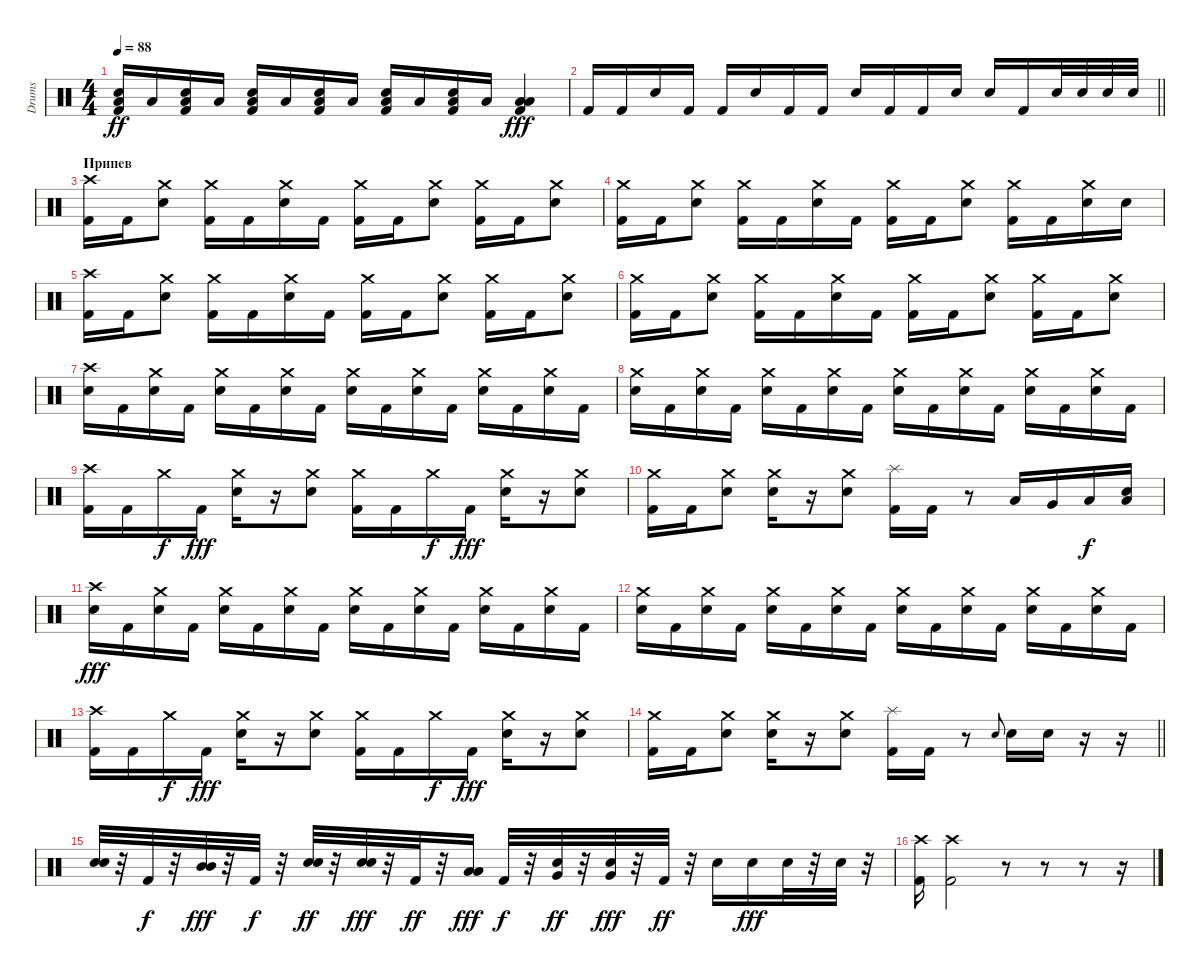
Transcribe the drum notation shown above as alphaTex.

\track ("Drums" "Drums") {instrument percussion}
\staff {score}
\articulation defaults
\ts (4 4)
\tempo 88
\clef neutral
\ks c
("Kick (hit) 2" "Electric Snare (hit)" "Low Floor Tom (hit)").16{dy ff} "Low Floor Tom (hit)".16 ("Kick (hit) 2" "Electric Snare (hit)" "Low Floor Tom (hit)").16 "Low Floor Tom (hit)".16 ("Kick (hit) 2" "Electric Snare (hit)" "Low Floor Tom (hit)").16 "Low Floor Tom (hit)".16 ("Kick (hit) 2" "Electric Snare (hit)" "Low Floor Tom (hit)").16 "Low Floor Tom (hit)".16 ("Kick (hit) 2" "Electric Snare (hit)" "Low Floor Tom (hit)").16 "Low Floor Tom (hit)".16 ("Kick (hit) 2" "Electric Snare (hit)" "Low Floor Tom (hit)").16 "Low Floor Tom (hit)".16 ("Kick (hit) 2" "Low Floor Tom (hit)" "Low Tom (hit)").4{dy fff} |
\barLineRight lightlight "Kick (hit) 2".16 "Kick (hit) 2".16 "Electric Snare (hit)".16 "Kick (hit) 2".16 "Kick (hit) 2".16 "Electric Snare (hit)".16 "Kick (hit) 2".16 "Kick (hit) 2".16 "Electric Snare (hit)".16 "Kick (hit) 2".16 "Kick (hit) 2".16 "Electric Snare (hit)".16 "Electric Snare (hit)".16 "Kick (hit) 2".16 "Electric Snare (hit)".32 "Electric Snare (hit)".32 "Electric Snare (hit)".32 "Electric Snare (hit)".32
|
\section ("" "Припев")
("Kick (hit) 2" "Crash high (hit)").16 "Kick (hit) 2".16 ("Electric Snare (hit)" "Crash medium (hit)").8 ("Kick (hit) 2" "Crash medium (hit)").16 "Kick (hit) 2".16 ("Electric Snare (hit)" "Crash medium (hit)").16 "Kick (hit) 2".16 ("Kick (hit) 2" "Crash medium (hit)").16 "Kick (hit) 2".16 ("Electric Snare (hit)" "Crash medium (hit)").8 ("Kick (hit) 2" "Crash medium (hit)").16 "Kick (hit) 2".16 ("Electric Snare (hit)" "Crash medium (hit)").8 |
("Kick (hit) 2" "Crash medium (hit)").16 "Kick (hit) 2".16 ("Electric Snare (hit)" "Crash medium (hit)").8 ("Kick (hit) 2" "Crash medium (hit)").16 "Kick (hit) 2".16 ("Electric Snare (hit)" "Crash medium (hit)").16 "Kick (hit) 2".16 ("Kick (hit) 2" "Crash medium (hit)").16 "Kick (hit) 2".16 ("Electric Snare (hit)" "Crash medium (hit)").8 ("Kick (hit) 2" "Crash medium (hit)").16 "Kick (hit) 2".16 ("Electric Snare (hit)" "Crash medium (hit)").16 "Electric Snare (hit)".16 |
("Kick (hit) 2" "Crash high (hit)").16 "Kick (hit) 2".16 ("Electric Snare (hit)" "Crash medium (hit)").8 ("Kick (hit) 2" "Crash medium (hit)").16 "Kick (hit) 2".16 ("Electric Snare (hit)" "Crash medium (hit)").16 "Kick (hit) 2".16 ("Kick (hit) 2" "Crash medium (hit)").16 "Kick (hit) 2".16 ("Electric Snare (hit)" "Crash medium (hit)").8 ("Kick (hit) 2" "Crash medium (hit)").16 "Kick (hit) 2".16 ("Electric Snare (hit)" "Crash medium (hit)").8 |
("Kick (hit) 2" "Crash medium (hit)").16 "Kick (hit) 2".16 ("Electric Snare (hit)" "Crash medium (hit)").8 ("Kick (hit) 2" "Crash medium (hit)").16 "Kick (hit) 2".16 ("Electric Snare (hit)" "Crash medium (hit)").16 "Kick (hit) 2".16 ("Kick (hit) 2" "Crash medium (hit)").16 "Kick (hit) 2".16 ("Electric Snare (hit)" "Crash medium (hit)").8 ("Kick (hit) 2" "Crash medium (hit)").16 "Kick (hit) 2".16 ("Electric Snare (hit)" "Crash medium (hit)").8 |
("Electric Snare (hit)" "Crash high (hit)").16 "Kick (hit) 2".16 ("Electric Snare (hit)" "Crash medium (hit)").16 "Kick (hit) 2".16 ("Electric Snare (hit)" "Crash medium (hit)").16 "Kick (hit) 2".16 ("Electric Snare (hit)" "Crash medium (hit)").16 "Kick (hit) 2".16 ("Electric Snare (hit)" "Crash medium (hit)").16 "Kick (hit) 2".16 ("Electric Snare (hit)" "Crash medium (hit)").16 "Kick (hit) 2".16 ("Electric Snare (hit)" "Crash medium (hit)").16 "Kick (hit) 2".16 ("Electric Snare (hit)" "Crash medium (hit)").16 "Kick (hit) 2".16 |
("Electric Snare (hit)" "Crash medium (hit)").16 "Kick (hit) 2".16 ("Electric Snare (hit)" "Crash medium (hit)").16 "Kick (hit) 2".16 ("Electric Snare (hit)" "Crash medium (hit)").16 "Kick (hit) 2".16 ("Electric Snare (hit)" "Crash medium (hit)").16 "Kick (hit) 2".16 ("Electric Snare (hit)" "Crash medium (hit)").16 "Kick (hit) 2".16 ("Electric Snare (hit)" "Crash medium (hit)").16 "Kick (hit) 2".16 ("Electric Snare (hit)" "Crash medium (hit)").16 "Kick (hit) 2".16 ("Electric Snare (hit)" "Crash medium (hit)").16 "Kick (hit) 2".16 |
("Kick (hit) 2" "Crash high (hit)").16 "Kick (hit) 2".16 "Crash medium (hit)".16{dy f} "Kick (hit) 2".16{dy fff} ("Electric Snare (hit)" "Crash medium (hit)").16 r.16 ("Electric Snare (hit)" "Crash medium (hit)").8 ("Kick (hit) 2" "Crash medium (hit)").16 "Kick (hit) 2".16 "Crash medium (hit)".16{dy f} "Kick (hit) 2".16{dy fff} ("Electric Snare (hit)" "Crash medium (hit)").16 r.16 ("Electric Snare (hit)" "Crash medium (hit)").8 |
("Kick (hit) 2" "Crash medium (hit)").16 "Kick (hit) 2".16 ("Electric Snare (hit)" "Crash medium (hit)").8 ("Electric Snare (hit)" "Crash medium (hit)").16 r.16 ("Electric Snare (hit)" "Crash medium (hit)").8 ("Kick (hit) 2" "Splash (hit)").16 "Kick (hit) 2".16 r.8 "Low Tom (hit)".16 "Very Low Tom (hit)".16 "Low Floor Tom (hit)".16{dy f} ("Low Floor Tom (hit)" "Electric Snare (hit)").16 |
("Electric Snare (hit)" "Crash high (hit)").16{dy fff} "Kick (hit) 2".16 ("Electric Snare (hit)" "Crash medium (hit)").16 "Kick (hit) 2".16 ("Electric Snare (hit)" "Crash medium (hit)").16 "Kick (hit) 2".16 ("Electric Snare (hit)" "Crash medium (hit)").16 "Kick (hit) 2".16 ("Electric Snare (hit)" "Crash medium (hit)").16 "Kick (hit) 2".16 ("Electric Snare (hit)" "Crash medium (hit)").16 "Kick (hit) 2".16 ("Electric Snare (hit)" "Crash medium (hit)").16 "Kick (hit) 2".16 ("Electric Snare (hit)" "Crash medium (hit)").16 "Kick (hit) 2".16 |
("Electric Snare (hit)" "Crash medium (hit)").16 "Kick (hit) 2".16 ("Electric Snare (hit)" "Crash medium (hit)").16 "Kick (hit) 2".16 ("Electric Snare (hit)" "Crash medium (hit)").16 "Kick (hit) 2".16 ("Electric Snare (hit)" "Crash medium (hit)").16 "Kick (hit) 2".16 ("Electric Snare (hit)" "Crash medium (hit)").16 "Kick (hit) 2".16 ("Electric Snare (hit)" "Crash medium (hit)").16 "Kick (hit) 2".16 ("Electric Snare (hit)" "Crash medium (hit)").16 "Kick (hit) 2".16 ("Electric Snare (hit)" "Crash medium (hit)").16 "Kick (hit) 2".16 |
("Kick (hit) 2" "Crash high (hit)").16 "Kick (hit) 2".16 "Crash medium (hit)".16{dy f} "Kick (hit) 2".16{dy fff} ("Electric Snare (hit)" "Crash medium (hit)").16 r.16 ("Electric Snare (hit)" "Crash medium (hit)").8 ("Kick (hit) 2" "Crash medium (hit)").16 "Kick (hit) 2".16 "Crash medium (hit)".16{dy f} "Kick (hit) 2".16{dy fff} ("Electric Snare (hit)" "Crash medium (hit)").16 r.16 ("Electric Snare (hit)" "Crash medium (hit)").8 |
\barLineRight lightlight
("Kick (hit) 2" "Crash medium (hit)").16 "Kick (hit) 2".16 ("Electric Snare (hit)" "Crash medium (hit)").8 ("Electric Snare (hit)" "Crash medium (hit)").16 r.16 ("Electric Snare (hit)" "Crash medium (hit)").8 ("Kick (hit) 2" "Splash (hit)").16 "Kick (hit) 2".16 r.8 "Electric Snare (hit)".8{gr onbeat} "Electric Snare (hit)".16 "Electric Snare (hit)".16 r.16 r.16 |
("Electric Snare (hit)" "Snare (hit) 2").32 r.32 "Kick (hit) 2".32{dy f} r.32 ("Mid Tom (hit)" "Mid Tom (hit)").32{dy fff} r.32 "Kick (hit) 2".32{dy f} r.32 ("Electric Snare (hit)" "Snare (hit) 2").32{dy ff} r.32 ("Electric Snare (hit)" "Snare (hit) 2").32{dy fff} r.32 "Kick (hit) 2".32{dy ff} r.32 ("Low Tom (hit)" "Low Tom (hit)").16{dy fff} "Kick (hit) 2".32{dy f} r.32 ("Electric Snare (hit)" "Very Low Tom (hit)").32{dy ff} r.32 ("Electric Snare (hit)" "Very Low Tom (hit)").32{dy fff} r.32 "Kick (hit) 2".32{dy ff} r.32 "Electric Snare (hit)".16 "Electric Snare (hit)".16{dy fff} "Electric Snare (hit)".32 r.32 "Electric Snare (hit)".32 r.32 |
("Kick (hit) 2" "Crash high (hit)").16 ("Kick (hit) 2" "Crash high (hit)").2 r.8 r.8 r.8 r.16
